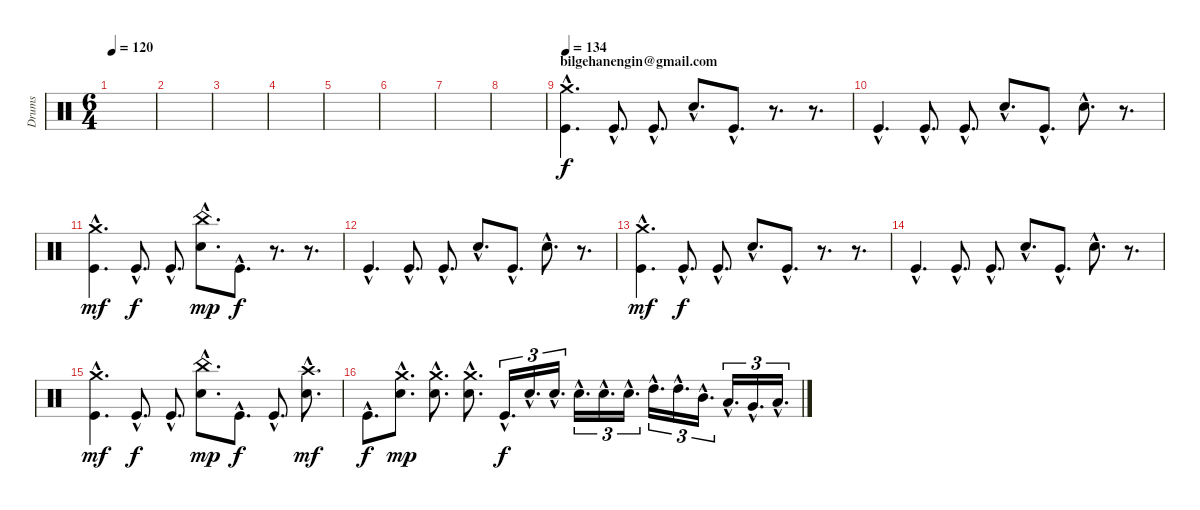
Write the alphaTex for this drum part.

\track ("Drums" "Drums") {instrument percussion}
\staff {score}
\articulation defaults
\ts (6 4)
\tempo 120
\clef neutral
\ks c
|
|
|
|
|
|
|
|
\section ("" "bilgehanengin@gmail.com")
\tempo 134
("Crash medium (hit)"{hac} "Kick (hit)"{hac}).4{d} "Kick (hit)"{hac}.8{d dy f} "Kick (hit)"{hac}.8{d} "Electric Snare (hit)"{hac}.8{d} "Kick (hit)"{hac}.8{d} r.8{d} r.8{d} |
"Kick (hit)"{hac}.4{d} "Kick (hit)"{hac}.8{d} "Kick (hit)"{hac}.8{d} "Electric Snare (hit)"{hac}.8{d} "Kick (hit)"{hac}.8{d} "Electric Snare (hit)"{hac}.8{d} r.8{d} |
("Crash medium (hit)"{hac} "Kick (hit)"{hac}).4{d dy mf} "Kick (hit)"{hac}.8{d dy f} "Kick (hit)"{hac}.8{d} ("China (hit)"{hac} "Electric Snare (hit)"{hac}).8{d dy mp} "Kick (hit)"{hac}.8{d dy f} r.8{d} r.8{d} |
"Kick (hit)"{hac}.4{d} "Kick (hit)"{hac}.8{d} "Kick (hit)"{hac}.8{d} "Electric Snare (hit)"{hac}.8{d} "Kick (hit)"{hac}.8{d} "Electric Snare (hit)"{hac}.8{d} r.8{d} |
("Crash medium (hit)"{hac} "Kick (hit)"{hac}).4{d dy mf} "Kick (hit)"{hac}.8{d dy f} "Kick (hit)"{hac}.8{d} "Electric Snare (hit)"{hac}.8{d} "Kick (hit)"{hac}.8{d} r.8{d} r.8{d} |
"Kick (hit)"{hac}.4{d} "Kick (hit)"{hac}.8{d} "Kick (hit)"{hac}.8{d} "Electric Snare (hit)"{hac}.8{d} "Kick (hit)"{hac}.8{d} "Electric Snare (hit)"{hac}.8{d} r.8{d} |
("Crash medium (hit)"{hac} "Kick (hit)"{hac}).4{d dy mf} "Kick (hit)"{hac}.8{d dy f} "Kick (hit)"{hac}.8{d} ("China (hit)"{hac} "Electric Snare (hit)"{hac}).8{d dy mp} "Kick (hit)"{hac}.8{d dy f} "Kick (hit)"{hac}.8{d} ("Crash high (hit)"{hac} "Electric Snare (hit)"{hac}).8{d dy mf} |
"Kick (hit)"{hac}.8{d dy f} ("Crash medium (hit)"{hac} "Electric Snare (hit)"{hac}).8{d dy mp} ("Crash medium (hit)"{hac} "Electric Snare (hit)"{hac}).8{d} ("Crash medium (hit)"{hac} "Electric Snare (hit)"{hac}).8{d} "Kick (hit)"{hac}.16{d tu (3 2) dy f} "Electric Snare (hit)"{hac}.16{d tu (3 2)} "Electric Snare (hit)"{hac}.16{d tu (3 2)} "Electric Snare (hit)"{hac}.16{d tu (3 2)} "Electric Snare (hit)"{hac}.16{d tu (3 2)} "Electric Snare (hit)"{hac}.16{d tu (3 2)} "High Tom (hit)"{hac}.16{d tu (3 2)} "High Tom (hit)"{hac}.16{d tu (3 2)} "Mid Tom (hit)"{hac}.16{d tu (3 2)} "Low Tom (hit)"{hac}.16{d tu (3 2)} "Very Low Tom (hit)"{hac}.16{d tu (3 2)} "Low Floor Tom (hit)"{hac}.16{d tu (3 2)}
